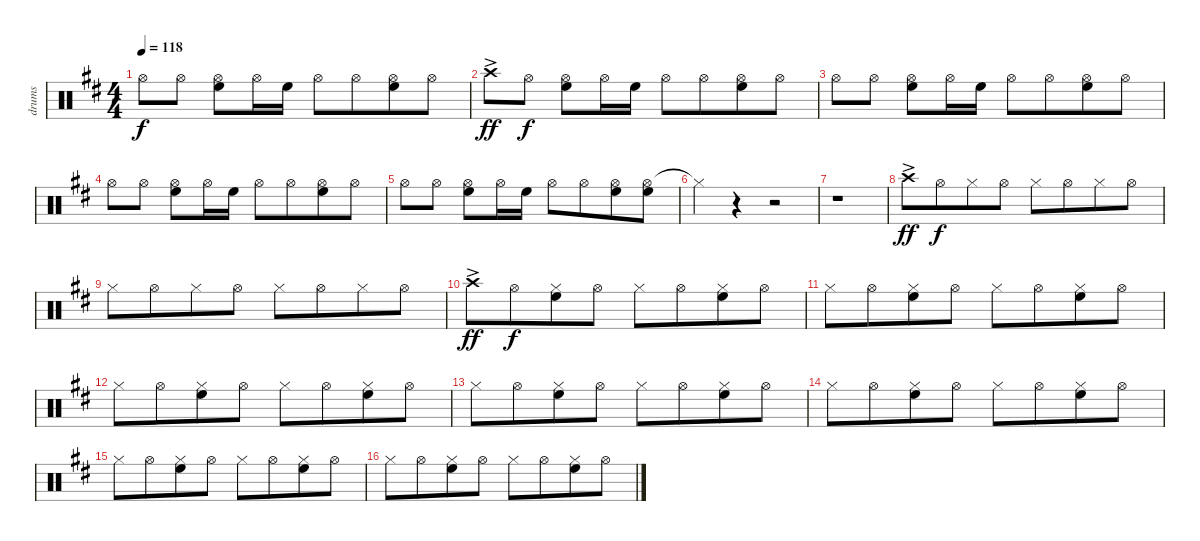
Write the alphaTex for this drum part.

\track ("drums" "drums") {instrument percussion}
\staff {score}
\articulation defaults
\ts (4 4)
\tempo 118
\clef neutral
\ks d "Hi-Hat (open)".8{dy f} "Hi-Hat (open)".8
("Hi-Hat (open)" "High Floor Tom (hit)").8 "Hi-Hat (open)".16 "High Floor Tom (hit)".16 "Hi-Hat (open)".8 "Hi-Hat (open)".8{beam merge} ("Hi-Hat (open)" "High Floor Tom (hit)").8 "Hi-Hat (open)".8 |
"Crash high (hit)"{ac}.8{dy ff} "Hi-Hat (open)".8{dy f} ("Hi-Hat (open)" "High Floor Tom (hit)").8 "Hi-Hat (open)".16 "High Floor Tom (hit)".16 "Hi-Hat (open)".8 "Hi-Hat (open)".8{beam merge} ("Hi-Hat (open)" "High Floor Tom (hit)").8 "Hi-Hat (open)".8 |
"Hi-Hat (open)".8 "Hi-Hat (open)".8 ("Hi-Hat (open)" "High Floor Tom (hit)").8 "Hi-Hat (open)".16 "High Floor Tom (hit)".16 "Hi-Hat (open)".8 "Hi-Hat (open)".8{beam merge} ("Hi-Hat (open)" "High Floor Tom (hit)").8 "Hi-Hat (open)".8 |
"Hi-Hat (open)".8 "Hi-Hat (open)".8 ("Hi-Hat (open)" "High Floor Tom (hit)").8 "Hi-Hat (open)".16 "High Floor Tom (hit)".16 "Hi-Hat (open)".8 "Hi-Hat (open)".8{beam merge} ("Hi-Hat (open)" "High Floor Tom (hit)").8 "Hi-Hat (open)".8 |
"Hi-Hat (open)".8 "Hi-Hat (open)".8 ("Hi-Hat (open)" "High Floor Tom (hit)").8 "Hi-Hat (open)".16 "High Floor Tom (hit)".16 "Hi-Hat (open)".8 "Hi-Hat (open)".8{beam merge} ("Hi-Hat (open)" "High Floor Tom (hit)").8 ("Hi-Hat (open)" "High Floor Tom (hit)").8 |
"Hi-Hat (closed)"{t}.4 r.4 r.2 |
r.1 |
"Crash high (hit)"{ac}.8{dy ff} "Hi-Hat (open)".8{dy f beam merge} "Hi-Hat (closed)".8 "Hi-Hat (open)".8 "Hi-Hat (closed)".8 "Hi-Hat (open)".8{beam merge} "Hi-Hat (closed)".8 "Hi-Hat (open)".8 |
"Hi-Hat (closed)".8 "Hi-Hat (open)".8{beam merge} "Hi-Hat (closed)".8 "Hi-Hat (open)".8{beam split} "Hi-Hat (closed)".8 "Hi-Hat (open)".8{beam merge} "Hi-Hat (closed)".8 "Hi-Hat (open)".8 |
"Crash high (hit)"{ac}.8{dy ff} "Hi-Hat (open)".8{dy f beam merge} ("Hi-Hat (closed)" "High Floor Tom (hit)").8 "Hi-Hat (open)".8 "Hi-Hat (closed)".8 "Hi-Hat (open)".8{beam merge} ("Hi-Hat (closed)" "High Floor Tom (hit)").8 "Hi-Hat (open)".8 |
"Hi-Hat (closed)".8 "Hi-Hat (open)".8{beam merge} ("Hi-Hat (closed)" "High Floor Tom (hit)").8 "Hi-Hat (open)".8{beam split} "Hi-Hat (closed)".8 "Hi-Hat (open)".8{beam merge} ("Hi-Hat (closed)" "High Floor Tom (hit)").8 "Hi-Hat (open)".8 |
"Hi-Hat (closed)".8 "Hi-Hat (open)".8{beam merge} ("Hi-Hat (closed)" "High Floor Tom (hit)").8 "Hi-Hat (open)".8{beam split} "Hi-Hat (closed)".8 "Hi-Hat (open)".8{beam merge} ("Hi-Hat (closed)" "High Floor Tom (hit)").8 "Hi-Hat (open)".8 |
"Hi-Hat (closed)".8 "Hi-Hat (open)".8{beam merge} ("Hi-Hat (closed)" "High Floor Tom (hit)").8 "Hi-Hat (open)".8{beam split} "Hi-Hat (closed)".8 "Hi-Hat (open)".8{beam merge} ("Hi-Hat (closed)" "High Floor Tom (hit)").8 "Hi-Hat (open)".8 |
"Hi-Hat (closed)".8 "Hi-Hat (open)".8{beam merge} ("Hi-Hat (closed)" "High Floor Tom (hit)").8 "Hi-Hat (open)".8{beam split} "Hi-Hat (closed)".8 "Hi-Hat (open)".8{beam merge} ("Hi-Hat (closed)" "High Floor Tom (hit)").8 "Hi-Hat (open)".8 |
"Hi-Hat (closed)".8 "Hi-Hat (open)".8{beam merge} ("Hi-Hat (closed)" "High Floor Tom (hit)").8 "Hi-Hat (open)".8{beam split} "Hi-Hat (closed)".8 "Hi-Hat (open)".8{beam merge} ("Hi-Hat (closed)" "High Floor Tom (hit)").8 "Hi-Hat (open)".8 |
"Hi-Hat (closed)".8 "Hi-Hat (open)".8{beam merge} ("Hi-Hat (closed)" "High Floor Tom (hit)").8 "Hi-Hat (open)".8{beam split} "Hi-Hat (closed)".8 "Hi-Hat (open)".8{beam merge} ("Hi-Hat (closed)" "High Floor Tom (hit)").8 "Hi-Hat (open)".8
